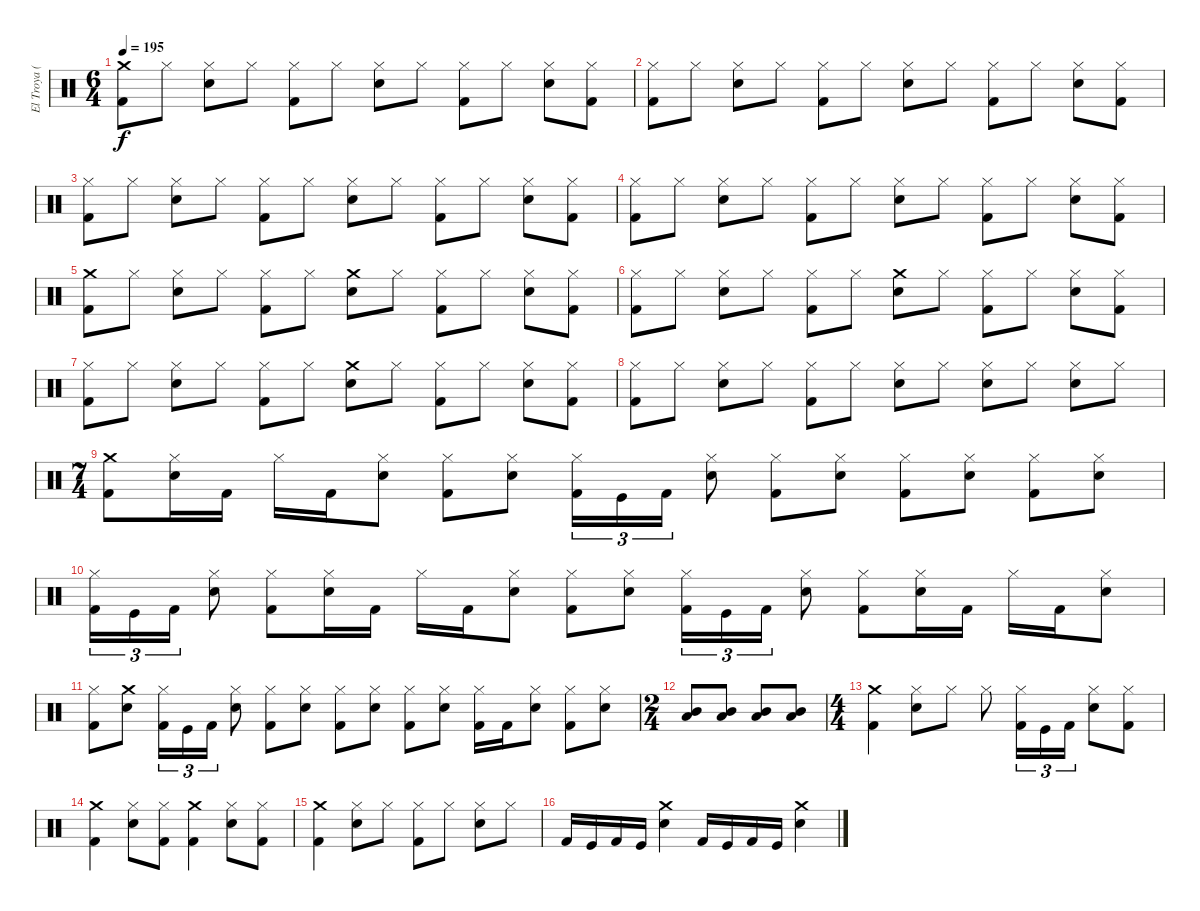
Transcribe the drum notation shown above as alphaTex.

\track ("El Troya (premio)" "El Troya (") {instrument percussion}
\staff {score}
\articulation defaults
\ts (6 4)
\tempo 195
\clef neutral
\ks c
("Kick (hit) 2" "Crash medium (hit)").8{dy f} "Hi-Hat (closed)".8 ("Snare (hit) 2" "Hi-Hat (closed)").8 "Hi-Hat (closed)".8 ("Kick (hit) 2" "Hi-Hat (closed)").8 "Hi-Hat (closed)".8 ("Snare (hit) 2" "Hi-Hat (closed)").8 "Hi-Hat (closed)".8 ("Kick (hit) 2" "Hi-Hat (closed)").8 "Hi-Hat (closed)".8 ("Snare (hit) 2" "Hi-Hat (closed)").8 ("Kick (hit) 2" "Hi-Hat (closed)").8 |
("Hi-Hat (closed)" "Kick (hit) 2").8 "Hi-Hat (closed)".8 ("Snare (hit) 2" "Hi-Hat (closed)").8 "Hi-Hat (closed)".8 ("Kick (hit) 2" "Hi-Hat (closed)").8 "Hi-Hat (closed)".8 ("Snare (hit) 2" "Hi-Hat (closed)").8 "Hi-Hat (closed)".8 ("Kick (hit) 2" "Hi-Hat (closed)").8 "Hi-Hat (closed)".8 ("Snare (hit) 2" "Hi-Hat (closed)").8 ("Kick (hit) 2" "Hi-Hat (closed)").8 |
("Hi-Hat (closed)" "Kick (hit) 2").8 "Hi-Hat (closed)".8 ("Snare (hit) 2" "Hi-Hat (closed)").8 "Hi-Hat (closed)".8 ("Kick (hit) 2" "Hi-Hat (closed)").8 "Hi-Hat (closed)".8 ("Snare (hit) 2" "Hi-Hat (closed)").8 "Hi-Hat (closed)".8 ("Kick (hit) 2" "Hi-Hat (closed)").8 "Hi-Hat (closed)".8 ("Snare (hit) 2" "Hi-Hat (closed)").8 ("Kick (hit) 2" "Hi-Hat (closed)").8 |
("Hi-Hat (closed)" "Kick (hit) 2").8 "Hi-Hat (closed)".8 ("Snare (hit) 2" "Hi-Hat (closed)").8 "Hi-Hat (closed)".8 ("Kick (hit) 2" "Hi-Hat (closed)").8 "Hi-Hat (closed)".8 ("Snare (hit) 2" "Hi-Hat (closed)").8 "Hi-Hat (closed)".8 ("Kick (hit) 2" "Hi-Hat (closed)").8 "Hi-Hat (closed)".8 ("Snare (hit) 2" "Hi-Hat (closed)").8 ("Kick (hit) 2" "Hi-Hat (closed)").8 |
("Kick (hit) 2" "Crash medium (hit)").8 "Hi-Hat (closed)".8 ("Snare (hit) 2" "Hi-Hat (closed)").8 "Hi-Hat (closed)".8 ("Kick (hit) 2" "Hi-Hat (closed)").8 "Hi-Hat (closed)".8 ("Crash medium (hit)" "Snare (hit) 2").8 "Hi-Hat (closed)".8 ("Kick (hit) 2" "Hi-Hat (closed)").8 "Hi-Hat (closed)".8 ("Snare (hit) 2" "Hi-Hat (closed)").8 ("Kick (hit) 2" "Hi-Hat (closed)").8 |
("Hi-Hat (closed)" "Kick (hit) 2").8 "Hi-Hat (closed)".8 ("Snare (hit) 2" "Hi-Hat (closed)").8 "Hi-Hat (closed)".8 ("Kick (hit) 2" "Hi-Hat (closed)").8 "Hi-Hat (closed)".8 ("Crash medium (hit)" "Snare (hit) 2").8 "Hi-Hat (closed)".8 ("Kick (hit) 2" "Hi-Hat (closed)").8 "Hi-Hat (closed)".8 ("Snare (hit) 2" "Hi-Hat (closed)").8 ("Kick (hit) 2" "Hi-Hat (closed)").8 |
("Hi-Hat (closed)" "Kick (hit) 2").8 "Hi-Hat (closed)".8 ("Snare (hit) 2" "Hi-Hat (closed)").8 "Hi-Hat (closed)".8 ("Kick (hit) 2" "Hi-Hat (closed)").8 "Hi-Hat (closed)".8 ("Crash medium (hit)" "Snare (hit) 2").8 "Hi-Hat (closed)".8 ("Kick (hit) 2" "Hi-Hat (closed)").8 "Hi-Hat (closed)".8 ("Snare (hit) 2" "Hi-Hat (closed)").8 ("Kick (hit) 2" "Hi-Hat (closed)").8 |
("Hi-Hat (closed)" "Kick (hit) 2").8 "Hi-Hat (closed)".8 ("Snare (hit) 2" "Hi-Hat (closed)").8 "Hi-Hat (closed)".8 ("Kick (hit) 2" "Hi-Hat (closed)").8 "Hi-Hat (closed)".8 ("Snare (hit) 2" "Hi-Hat (closed)").8 "Hi-Hat (closed)".8 ("Snare (hit) 2" "Hi-Hat (closed)").8 "Hi-Hat (closed)".8 ("Snare (hit) 2" "Hi-Hat (closed)").8 "Hi-Hat (closed)".8 |
\ts (7 4)
("Kick (hit) 2" "Crash medium (hit)").8 ("Snare (hit) 2" "Hi-Hat (closed)").16 "Kick (hit) 2".16 "Hi-Hat (closed)".16 "Kick (hit) 2".16 ("Snare (hit) 2" "Hi-Hat (closed)").8 ("Kick (hit) 2" "Hi-Hat (closed)").8 ("Snare (hit) 2" "Hi-Hat (closed)").8 ("Kick (hit) 2" "Hi-Hat (closed)").16{tu (3 2)} "Kick (hit)".16{tu (3 2)} "Kick (hit) 2".16{tu (3 2)} ("Snare (hit) 2" "Hi-Hat (closed)").8 ("Kick (hit) 2" "Hi-Hat (closed)").8 ("Snare (hit) 2" "Hi-Hat (closed)").8 ("Kick (hit) 2" "Hi-Hat (closed)").8 ("Snare (hit) 2" "Hi-Hat (closed)").8 ("Kick (hit) 2" "Hi-Hat (closed)").8 ("Snare (hit) 2" "Hi-Hat (closed)").8 |
("Kick (hit) 2" "Hi-Hat (closed)").16{tu (3 2)} "Kick (hit)".16{tu (3 2)} "Kick (hit) 2".16{tu (3 2)} ("Snare (hit) 2" "Hi-Hat (closed)").8 ("Kick (hit) 2" "Hi-Hat (closed)").8 ("Snare (hit) 2" "Hi-Hat (closed)").16 "Kick (hit) 2".16 "Hi-Hat (closed)".16 "Kick (hit) 2".16 ("Snare (hit) 2" "Hi-Hat (closed)").8 ("Kick (hit) 2" "Hi-Hat (closed)").8 ("Snare (hit) 2" "Hi-Hat (closed)").8 ("Kick (hit) 2" "Hi-Hat (closed)").16{tu (3 2)} "Kick (hit)".16{tu (3 2)} "Kick (hit) 2".16{tu (3 2)} ("Snare (hit) 2" "Hi-Hat (closed)").8 ("Kick (hit) 2" "Hi-Hat (closed)").8 ("Snare (hit) 2" "Hi-Hat (closed)").16 "Kick (hit) 2".16 "Hi-Hat (closed)".16 "Kick (hit) 2".16 ("Snare (hit) 2" "Hi-Hat (closed)").8 |
("Kick (hit) 2" "Hi-Hat (closed)").8 ("Crash medium (hit)" "Snare (hit) 2").8 ("Kick (hit) 2" "Hi-Hat (closed)").16{tu (3 2)} "Kick (hit)".16{tu (3 2)} "Kick (hit) 2".16{tu (3 2)} ("Snare (hit) 2" "Hi-Hat (closed)").8 ("Hi-Hat (closed)" "Kick (hit) 2").8 ("Hi-Hat (closed)" "Snare (hit) 2").8 ("Hi-Hat (closed)" "Kick (hit) 2").8 ("Snare (hit) 2" "Hi-Hat (closed)").8 ("Hi-Hat (closed)" "Kick (hit) 2").8 ("Snare (hit) 2" "Hi-Hat (closed)").8 ("Hi-Hat (closed)" "Kick (hit) 2").16 "Kick (hit) 2".16 ("Snare (hit) 2" "Hi-Hat (closed)").8 ("Hi-Hat (closed)" "Kick (hit) 2").8 ("Snare (hit) 2" "Hi-Hat (closed)").8 |
\ts (2 4)
("Mid Tom (hit)" "Low Tom (hit)").8 ("Mid Tom (hit)" "Low Tom (hit)").8 ("Mid Tom (hit)" "Low Tom (hit)").8 ("Mid Tom (hit)" "Low Tom (hit)").8 |
\ts (4 4)
("Kick (hit) 2" "Crash medium (hit)").4 ("Snare (hit) 2" "Hi-Hat (closed)").8 "Hi-Hat (closed)".8 "Hi-Hat (closed)".8 ("Kick (hit) 2" "Hi-Hat (closed)").16{tu (3 2)} "Kick (hit)".16{tu (3 2)} "Kick (hit) 2".16{tu (3 2)} ("Snare (hit) 2" "Hi-Hat (closed)").8 ("Kick (hit) 2" "Hi-Hat (closed)").8 |
("Kick (hit) 2" "Crash medium (hit)").4 ("Hi-Hat (closed)" "Snare (hit) 2").8 ("Kick (hit) 2" "Hi-Hat (closed)").8 ("Crash medium (hit)" "Kick (hit) 2").4 ("Hi-Hat (closed)" "Snare (hit) 2").8 ("Kick (hit) 2" "Hi-Hat (closed)").8 |
("Kick (hit) 2" "Crash medium (hit)").4 ("Hi-Hat (closed)" "Snare (hit) 2").8 "Hi-Hat (closed)".8 ("Hi-Hat (closed)" "Kick (hit) 2").8 "Hi-Hat (closed)".8 ("Snare (hit) 2" "Hi-Hat (closed)").8 "Hi-Hat (closed)".8 |
"Kick (hit) 2".16 "Kick (hit)".16 "Kick (hit) 2".16 "Kick (hit)".16 ("Crash medium (hit)" "Snare (hit) 2").4 "Kick (hit) 2".16 "Kick (hit)".16 "Kick (hit) 2".16 "Kick (hit)".16 ("Snare (hit) 2" "Crash medium (hit)").4
